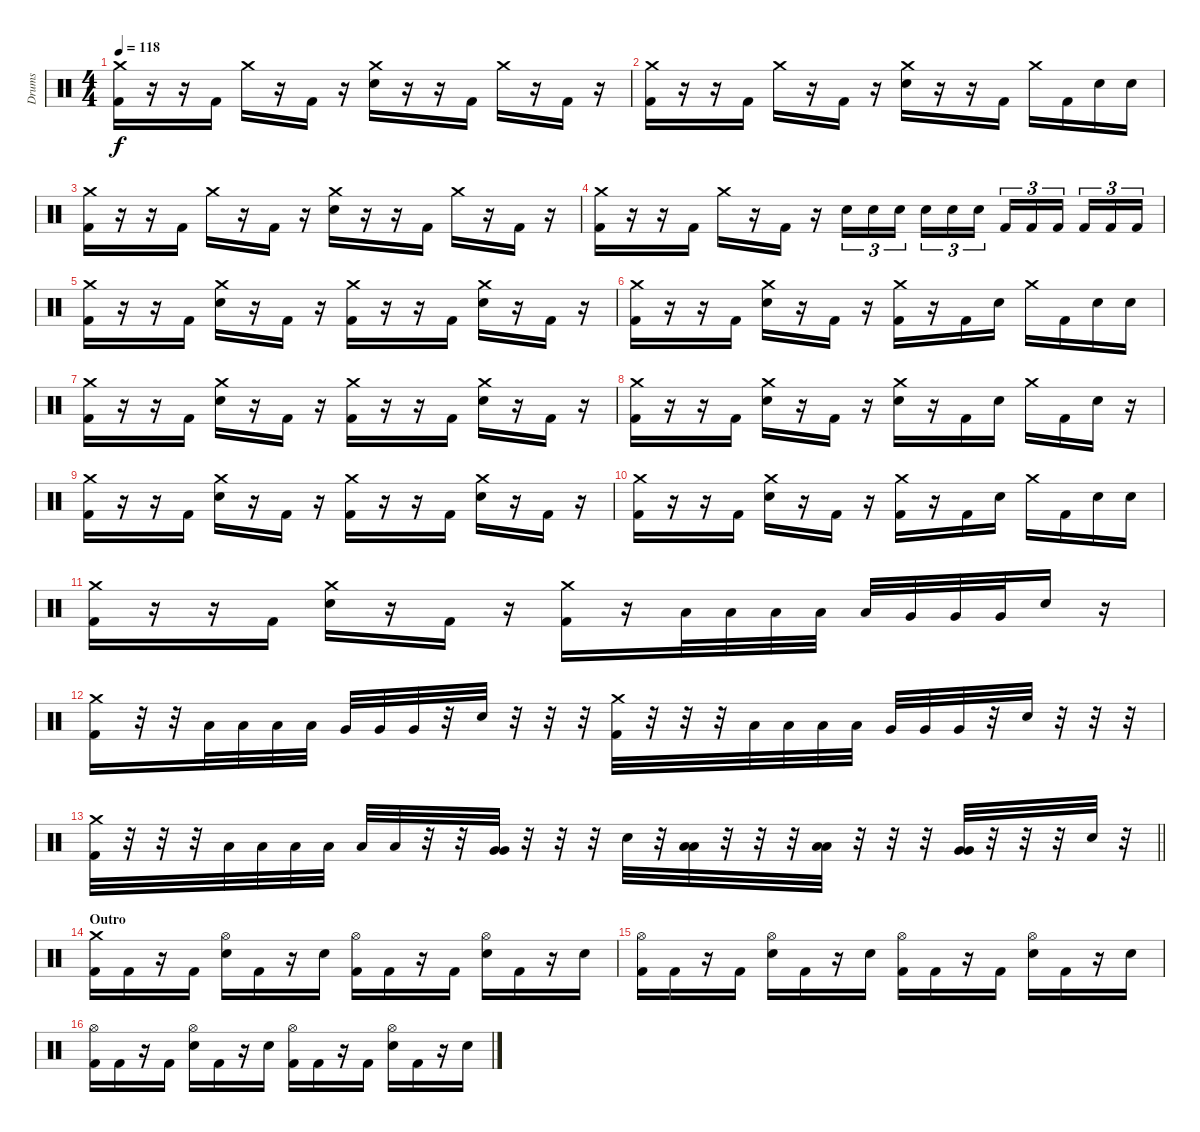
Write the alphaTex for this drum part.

\track ("Drums" "Drums") {instrument percussion}
\staff {score}
\articulation defaults
\ts (4 4)
\tempo 118
\clef neutral
\ks c
("Crash medium (hit)" "Kick (hit) 2").16{dy f} r.16 r.16 "Kick (hit) 2".16 "Crash medium (hit)".16 r.16 "Kick (hit) 2".16 r.16 ("Crash medium (hit)" "Electric Snare (hit)").16 r.16 r.16 "Kick (hit) 2".16 "Crash medium (hit)".16 r.16 "Kick (hit) 2".16 r.16 |
("Crash medium (hit)" "Kick (hit) 2").16 r.16 r.16 "Kick (hit) 2".16 "Crash medium (hit)".16 r.16 "Kick (hit) 2".16 r.16 ("Crash medium (hit)" "Electric Snare (hit)").16 r.16 r.16 "Kick (hit) 2".16 "Crash medium (hit)".16 "Kick (hit) 2".16 "Electric Snare (hit)".16 "Electric Snare (hit)".16 |
("Crash medium (hit)" "Kick (hit) 2").16 r.16 r.16 "Kick (hit) 2".16 "Crash medium (hit)".16 r.16 "Kick (hit) 2".16 r.16 ("Crash medium (hit)" "Electric Snare (hit)").16 r.16 r.16 "Kick (hit) 2".16 "Crash medium (hit)".16 r.16 "Kick (hit) 2".16 r.16 |
("Crash medium (hit)" "Kick (hit) 2").16 r.16 r.16 "Kick (hit) 2".16 "Crash medium (hit)".16 r.16 "Kick (hit) 2".16 r.16 "Electric Snare (hit)".16{tu (3 2)} "Electric Snare (hit)".16{tu (3 2)} "Electric Snare (hit)".16{tu (3 2) beam splitsecondary} "Electric Snare (hit)".16{tu (3 2)} "Electric Snare (hit)".16{tu (3 2)} "Electric Snare (hit)".16{tu (3 2)} "Kick (hit) 2".16{tu (3 2)} "Kick (hit) 2".16{tu (3 2)} "Kick (hit) 2".16{tu (3 2) beam splitsecondary} "Kick (hit) 2".16{tu (3 2)} "Kick (hit) 2".16{tu (3 2)} "Kick (hit) 2".16{tu (3 2)} |
("Crash medium (hit)" "Kick (hit) 2").16 r.16 r.16 "Kick (hit) 2".16 ("Crash medium (hit)" "Electric Snare (hit)").16 r.16 "Kick (hit) 2".16 r.16 ("Crash medium (hit)" "Kick (hit) 2").16 r.16 r.16 "Kick (hit) 2".16 ("Crash medium (hit)" "Electric Snare (hit)").16 r.16 "Kick (hit) 2".16 r.16 |
("Crash medium (hit)" "Kick (hit) 2").16 r.16 r.16 "Kick (hit) 2".16 ("Crash medium (hit)" "Electric Snare (hit)").16 r.16 "Kick (hit) 2".16 r.16 ("Crash medium (hit)" "Kick (hit) 2").16 r.16 "Kick (hit) 2".16 "Electric Snare (hit)".16 "Crash medium (hit)".16 "Kick (hit) 2".16 "Electric Snare (hit)".16 "Electric Snare (hit)".16 |
("Crash medium (hit)" "Kick (hit) 2").16 r.16 r.16 "Kick (hit) 2".16 ("Crash medium (hit)" "Electric Snare (hit)").16 r.16 "Kick (hit) 2".16 r.16 ("Crash medium (hit)" "Kick (hit) 2").16 r.16 r.16 "Kick (hit) 2".16 ("Crash medium (hit)" "Electric Snare (hit)").16 r.16 "Kick (hit) 2".16 r.16 |
("Crash medium (hit)" "Kick (hit) 2").16 r.16 r.16 "Kick (hit) 2".16 ("Crash medium (hit)" "Electric Snare (hit)").16 r.16 "Kick (hit) 2".16 r.16 ("Crash medium (hit)" "Electric Snare (hit)").16 r.16 "Kick (hit) 2".16 "Electric Snare (hit)".16 "Crash medium (hit)".16 "Kick (hit) 2".16 "Electric Snare (hit)".16 r.16 |
("Crash medium (hit)" "Kick (hit) 2").16 r.16 r.16 "Kick (hit) 2".16 ("Crash medium (hit)" "Electric Snare (hit)").16 r.16 "Kick (hit) 2".16 r.16 ("Crash medium (hit)" "Kick (hit) 2").16 r.16 r.16 "Kick (hit) 2".16 ("Crash medium (hit)" "Electric Snare (hit)").16 r.16 "Kick (hit) 2".16 r.16 |
("Crash medium (hit)" "Kick (hit) 2").16 r.16 r.16 "Kick (hit) 2".16 ("Crash medium (hit)" "Electric Snare (hit)").16 r.16 "Kick (hit) 2".16 r.16 ("Crash medium (hit)" "Kick (hit) 2").16 r.16 "Kick (hit) 2".16 "Electric Snare (hit)".16 "Crash medium (hit)".16 "Kick (hit) 2".16 "Electric Snare (hit)".16 "Electric Snare (hit)".16 |
("Crash medium (hit)" "Kick (hit) 2").16 r.16 r.16 "Kick (hit) 2".16 ("Crash medium (hit)" "Electric Snare (hit)").16 r.16 "Kick (hit) 2".16 r.16 ("Crash medium (hit)" "Kick (hit) 2").16 r.16 "Low Tom (hit)".32 "Low Tom (hit)".32 "Low Tom (hit)".32 "Low Tom (hit)".32 "Low Tom (hit)".32 "Very Low Tom (hit)".32 "Very Low Tom (hit)".32 "Very Low Tom (hit)".32 "Electric Snare (hit)".16 r.16 |
("Crash medium (hit)" "Kick (hit) 2").16 r.32 r.32 "Low Tom (hit)".32 "Low Tom (hit)".32 "Low Tom (hit)".32 "Low Tom (hit)".32 "Very Low Tom (hit)".32 "Very Low Tom (hit)".32 "Very Low Tom (hit)".32 r.32 "Electric Snare (hit)".32 r.32 r.32 r.32 ("Crash medium (hit)" "Kick (hit) 2").32 r.32 r.32 r.32 "Low Tom (hit)".32 "Low Tom (hit)".32 "Low Tom (hit)".32 "Low Tom (hit)".32 "Very Low Tom (hit)".32 "Very Low Tom (hit)".32 "Very Low Tom (hit)".32 r.32 "Electric Snare (hit)".32 r.32 r.32 r.32 |
\barLineRight lightlight
("Crash medium (hit)" "Kick (hit) 2").32 r.32 r.32 r.32 "Low Tom (hit)".32 "Low Tom (hit)".32 "Low Tom (hit)".32 "Low Tom (hit)".32 "Low Tom (hit)".32 "Low Tom (hit)".32 r.32 r.32 ("Very Low Tom (hit)" "Very Low Tom (hit)").32 r.32 r.32 r.32 "Electric Snare (hit)".32 r.32 ("Low Tom (hit)" "Low Tom (hit)").32 r.32 r.32 r.32 ("Low Tom (hit)" "Low Tom (hit)").32 r.32 r.32 r.32 ("Very Low Tom (hit)" "Very Low Tom (hit)").32 r.32 r.32 r.32 "Electric Snare (hit)".32 r.32 |
\section ("" "Outro")
("Crash medium (hit)" "Kick (hit) 2").16 "Kick (hit) 2".16 r.16 "Kick (hit) 2".16 ("Hi-Hat (open)" "Electric Snare (hit)").16 "Kick (hit) 2".16 r.16 "Electric Snare (hit)".16 ("Hi-Hat (open)" "Kick (hit) 2").16 "Kick (hit) 2".16 r.16 "Kick (hit) 2".16 ("Hi-Hat (open)" "Electric Snare (hit)").16 "Kick (hit) 2".16 r.16 "Electric Snare (hit)".16 |
("Hi-Hat (open)" "Kick (hit) 2").16 "Kick (hit) 2".16 r.16 "Kick (hit) 2".16 ("Hi-Hat (open)" "Electric Snare (hit)").16 "Kick (hit) 2".16 r.16 "Electric Snare (hit)".16 ("Hi-Hat (open)" "Kick (hit) 2").16 "Kick (hit) 2".16 r.16 "Kick (hit) 2".16 ("Hi-Hat (open)" "Electric Snare (hit)").16 "Kick (hit) 2".16 r.16 "Electric Snare (hit)".16 |
("Hi-Hat (open)" "Kick (hit) 2").16 "Kick (hit) 2".16 r.16 "Kick (hit) 2".16 ("Hi-Hat (open)" "Electric Snare (hit)").16 "Kick (hit) 2".16 r.16 "Electric Snare (hit)".16 ("Hi-Hat (open)" "Kick (hit) 2").16 "Kick (hit) 2".16 r.16 "Kick (hit) 2".16 ("Hi-Hat (open)" "Electric Snare (hit)").16 "Kick (hit) 2".16 r.16 "Electric Snare (hit)".16
